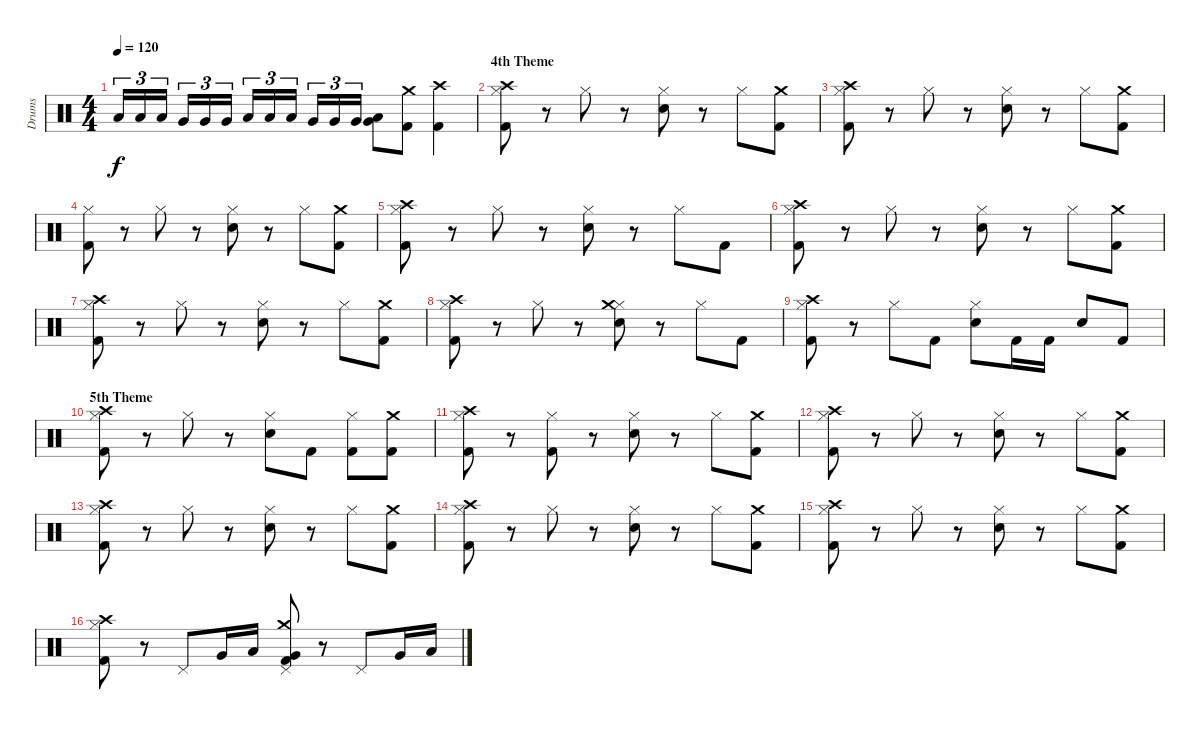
\track ("Drums" "Drums") {instrument percussion}
\staff {score}
\articulation defaults
\ts (4 4)
\tempo 120
\clef neutral
\ks c "Low Tom (hit)".16{tu (3 2) dy f} "Low Tom (hit)".16{tu (3 2)} "Low Tom (hit)".16{tu (3 2)} "Very Low Tom (hit)".16{tu (3 2)} "Very Low Tom (hit)".16{tu (3 2)} "Very Low Tom (hit)".16{tu (3 2)} "Low Floor Tom (hit)".16{tu (3 2)} "Low Floor Tom (hit)".16{tu (3 2)} "Low Floor Tom (hit)".16{tu (3 2)} "Very Low Tom (hit)".16{tu (3 2)} "Very Low Tom (hit)".16{tu (3 2)} "Very Low Tom (hit)".16{tu (3 2)}
("Low Tom (hit)" "Very Low Tom (hit)").8 ("Kick (hit) 2" "Crash medium (hit)").8 ("Kick (hit) 2" "Crash high (hit)").4 |
\section ("" "4th Theme")
("Hi-Hat (closed)" "Kick (hit) 2" "Crash high (hit)").8 r.8 "Hi-Hat (closed)".8 r.8 ("Hi-Hat (closed)" "Snare (hit) 2").8 r.8 "Hi-Hat (closed)".8 ("Kick (hit) 2" "Crash medium (hit)").8 |
("Hi-Hat (closed)" "Kick (hit) 2" "Crash high (hit)").8 r.8 "Hi-Hat (closed)".8 r.8 ("Hi-Hat (closed)" "Snare (hit) 2").8 r.8 "Hi-Hat (closed)".8 ("Kick (hit) 2" "Crash medium (hit)").8 |
("Hi-Hat (closed)" "Kick (hit) 2").8 r.8 "Hi-Hat (closed)".8 r.8 ("Hi-Hat (closed)" "Snare (hit) 2").8 r.8 "Hi-Hat (closed)".8 ("Kick (hit) 2" "Crash medium (hit)").8 |
("Hi-Hat (closed)" "Kick (hit) 2" "Crash high (hit)").8 r.8 "Hi-Hat (closed)".8 r.8 ("Hi-Hat (closed)" "Snare (hit) 2").8 r.8 "Hi-Hat (closed)".8 "Kick (hit) 2".8 |
("Hi-Hat (closed)" "Kick (hit) 2" "Crash high (hit)").8 r.8 "Hi-Hat (closed)".8 r.8 ("Hi-Hat (closed)" "Snare (hit) 2").8 r.8 "Hi-Hat (closed)".8 ("Kick (hit) 2" "Crash medium (hit)").8 |
("Hi-Hat (closed)" "Kick (hit) 2" "Crash high (hit)").8 r.8 "Hi-Hat (closed)".8 r.8 ("Hi-Hat (closed)" "Snare (hit) 2").8 r.8 "Hi-Hat (closed)".8 ("Kick (hit) 2" "Crash medium (hit)").8 |
("Hi-Hat (closed)" "Kick (hit) 2" "Crash high (hit)").8 r.8 "Hi-Hat (closed)".8 r.8 ("Hi-Hat (closed)" "Snare (hit) 2" "Crash medium (hit)").8 r.8 "Hi-Hat (closed)".8 "Kick (hit) 2".8 |
("Hi-Hat (closed)" "Kick (hit) 2" "Crash high (hit)").8 r.8 "Hi-Hat (closed)".8 "Kick (hit) 2".8 ("Hi-Hat (closed)" "Snare (hit) 2").8 "Kick (hit) 2".16 "Kick (hit) 2".16 "Snare (hit) 2".8 "Kick (hit) 2".8 |
\section ("" "5th Theme")
("Hi-Hat (closed)" "Kick (hit) 2" "Crash high (hit)").8 r.8 "Hi-Hat (closed)".8 r.8 ("Hi-Hat (closed)" "Snare (hit) 2").8 "Kick (hit) 2".8 ("Hi-Hat (closed)" "Kick (hit) 2").8 ("Kick (hit) 2" "Crash medium (hit)").8 |
("Hi-Hat (closed)" "Kick (hit) 2" "Crash high (hit)").8 r.8 ("Hi-Hat (closed)" "Kick (hit) 2").8 r.8 ("Hi-Hat (closed)" "Snare (hit) 2").8 r.8 "Hi-Hat (closed)".8 ("Kick (hit) 2" "Crash medium (hit)").8 |
("Hi-Hat (closed)" "Kick (hit) 2" "Crash high (hit)").8 r.8 "Hi-Hat (closed)".8 r.8 ("Hi-Hat (closed)" "Snare (hit) 2").8 r.8 "Hi-Hat (closed)".8 ("Kick (hit) 2" "Crash medium (hit)").8 |
("Hi-Hat (closed)" "Kick (hit) 2" "Crash high (hit)").8 r.8 "Hi-Hat (closed)".8 r.8 ("Hi-Hat (closed)" "Snare (hit) 2").8 r.8 "Hi-Hat (closed)".8 ("Kick (hit) 2" "Crash medium (hit)").8 |
("Hi-Hat (closed)" "Kick (hit) 2" "Crash high (hit)").8 r.8 "Hi-Hat (closed)".8 r.8 ("Hi-Hat (closed)" "Snare (hit) 2").8 r.8 "Hi-Hat (closed)".8 ("Kick (hit) 2" "Crash medium (hit)").8 |
("Hi-Hat (closed)" "Kick (hit) 2" "Crash high (hit)").8 r.8 "Hi-Hat (closed)".8 r.8 ("Hi-Hat (closed)" "Snare (hit) 2").8 r.8 "Hi-Hat (closed)".8 ("Kick (hit) 2" "Crash medium (hit)").8 |
("Hi-Hat (closed)" "Kick (hit) 2" "Crash high (hit)").8 r.8 "Pedal Hi-Hat (hit)".8 "Very Low Tom (hit)".16 "Low Tom (hit)".16 ("Pedal Hi-Hat (hit)" "Very Low Tom (hit)" "Kick (hit) 2" "Crash medium (hit)").8 r.8 "Pedal Hi-Hat (hit)".8 "Very Low Tom (hit)".16 "Low Tom (hit)".16
